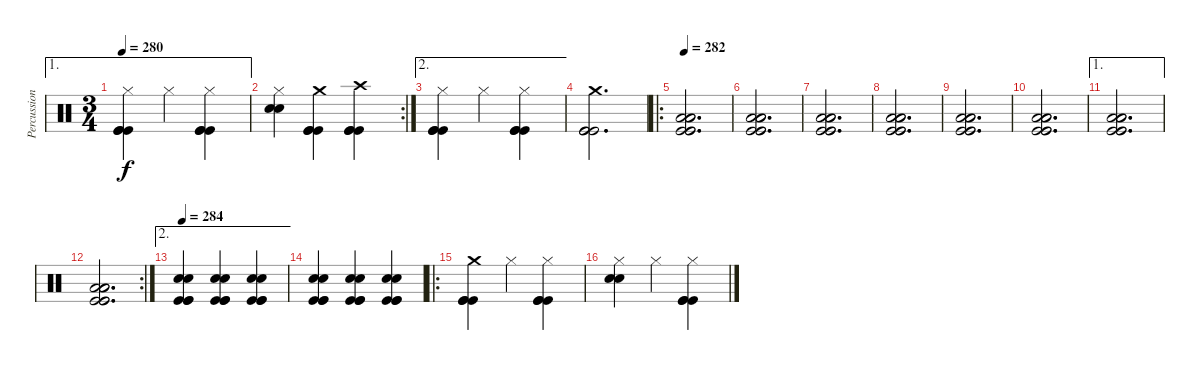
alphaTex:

\track ("Percussion" "Percussion") {instrument percussion}
\staff {score}
\articulation defaults
\ae 1
\ts (3 4)
\tempo 280
\clef neutral
\ks c
("Hi-Hat (closed)" "Kick (hit)" "Kick (hit)" "Kick (hit)").4{dy f} "Hi-Hat (closed)".4 ("Hi-Hat (closed)" "Kick (hit)" "Kick (hit)" "Kick (hit)").4 |
\rc 2
("Hi-Hat (closed)" "Electric Snare (hit)" "Snare (hit) 2").4 ("Crash medium (hit)" "Kick (hit)" "Kick (hit)" "Kick (hit)").4 ("Crash high (hit)" "Kick (hit)" "Kick (hit)" "Kick (hit)").4 |
\ae 2
("Hi-Hat (closed)" "Kick (hit)" "Kick (hit)" "Kick (hit)").4 "Hi-Hat (closed)".4 ("Hi-Hat (closed)" "Kick (hit)" "Kick (hit)" "Kick (hit)").4 |
("Crash medium (hit)" "Kick (hit)" "Kick (hit)" "Kick (hit)").2{d} |
\ro
\tempo 282
("Low Floor Tom (hit)" "Low Floor Tom (hit)" "Low Floor Tom (hit)" "Kick (hit)" "Kick (hit)" "Kick (hit)").2{d} |
("Low Floor Tom (hit)" "Low Floor Tom (hit)" "Low Floor Tom (hit)" "Kick (hit)" "Kick (hit)" "Kick (hit)").2{d} |
("Low Floor Tom (hit)" "Low Floor Tom (hit)" "Low Floor Tom (hit)" "Kick (hit)" "Kick (hit)" "Kick (hit)").2{d} |
("Low Floor Tom (hit)" "Low Floor Tom (hit)" "Low Floor Tom (hit)" "Kick (hit)" "Kick (hit)" "Kick (hit)").2{d} |
("Low Floor Tom (hit)" "Low Floor Tom (hit)" "Low Floor Tom (hit)" "Kick (hit)" "Kick (hit)" "Kick (hit)").2{d} |
("Low Floor Tom (hit)" "Low Floor Tom (hit)" "Low Floor Tom (hit)" "Kick (hit)" "Kick (hit)" "Kick (hit)").2{d} |
\ae 1
("Low Floor Tom (hit)" "Low Floor Tom (hit)" "Low Floor Tom (hit)" "Kick (hit)" "Kick (hit)" "Kick (hit)").2{d} |
\rc 2
("Low Floor Tom (hit)" "Low Floor Tom (hit)" "Low Floor Tom (hit)" "Kick (hit)" "Kick (hit)" "Kick (hit)").2{d} |
\ae 2
\tempo 284
("Electric Snare (hit)" "Snare (hit) 2" "Kick (hit)" "Kick (hit)" "Kick (hit)").4 ("Electric Snare (hit)" "Snare (hit) 2" "Kick (hit)" "Kick (hit)" "Kick (hit)").4 ("Electric Snare (hit)" "Snare (hit) 2" "Kick (hit)" "Kick (hit)" "Kick (hit)").4 |
("Electric Snare (hit)" "Snare (hit) 2" "Kick (hit)" "Kick (hit)" "Kick (hit)").4 ("Electric Snare (hit)" "Snare (hit) 2" "Kick (hit)" "Kick (hit)" "Kick (hit)").4 ("Electric Snare (hit)" "Snare (hit) 2" "Kick (hit)" "Kick (hit)" "Kick (hit)").4 |
\ro
("Crash medium (hit)" "Kick (hit)" "Kick (hit)" "Kick (hit)").4 "Hi-Hat (closed)".4 ("Hi-Hat (closed)" "Kick (hit)" "Kick (hit)" "Kick (hit)").4 |
("Hi-Hat (closed)" "Electric Snare (hit)" "Snare (hit) 2").4 "Hi-Hat (closed)".4 ("Hi-Hat (closed)" "Kick (hit)" "Kick (hit)" "Kick (hit)").4
